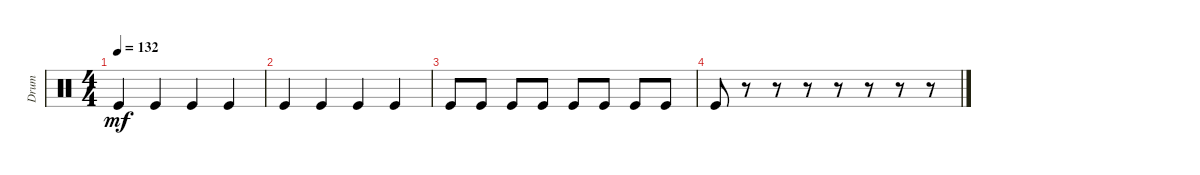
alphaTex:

\track ("Drum" "Drum") {instrument percussion}
\staff {score}
\articulation defaults
\ts (4 4)
\tempo 132
\clef neutral
\ks c "Kick (hit)".4{dy mf} "Kick (hit)".4 "Kick (hit)".4 "Kick (hit)".4
|
"Kick (hit)".4 "Kick (hit)".4 "Kick (hit)".4 "Kick (hit)".4 |
"Kick (hit)".8 "Kick (hit)".8 "Kick (hit)".8 "Kick (hit)".8 "Kick (hit)".8 "Kick (hit)".8 "Kick (hit)".8 "Kick (hit)".8 |
"Kick (hit)".8 r.8 r.8 r.8 r.8 r.8 r.8 r.8
